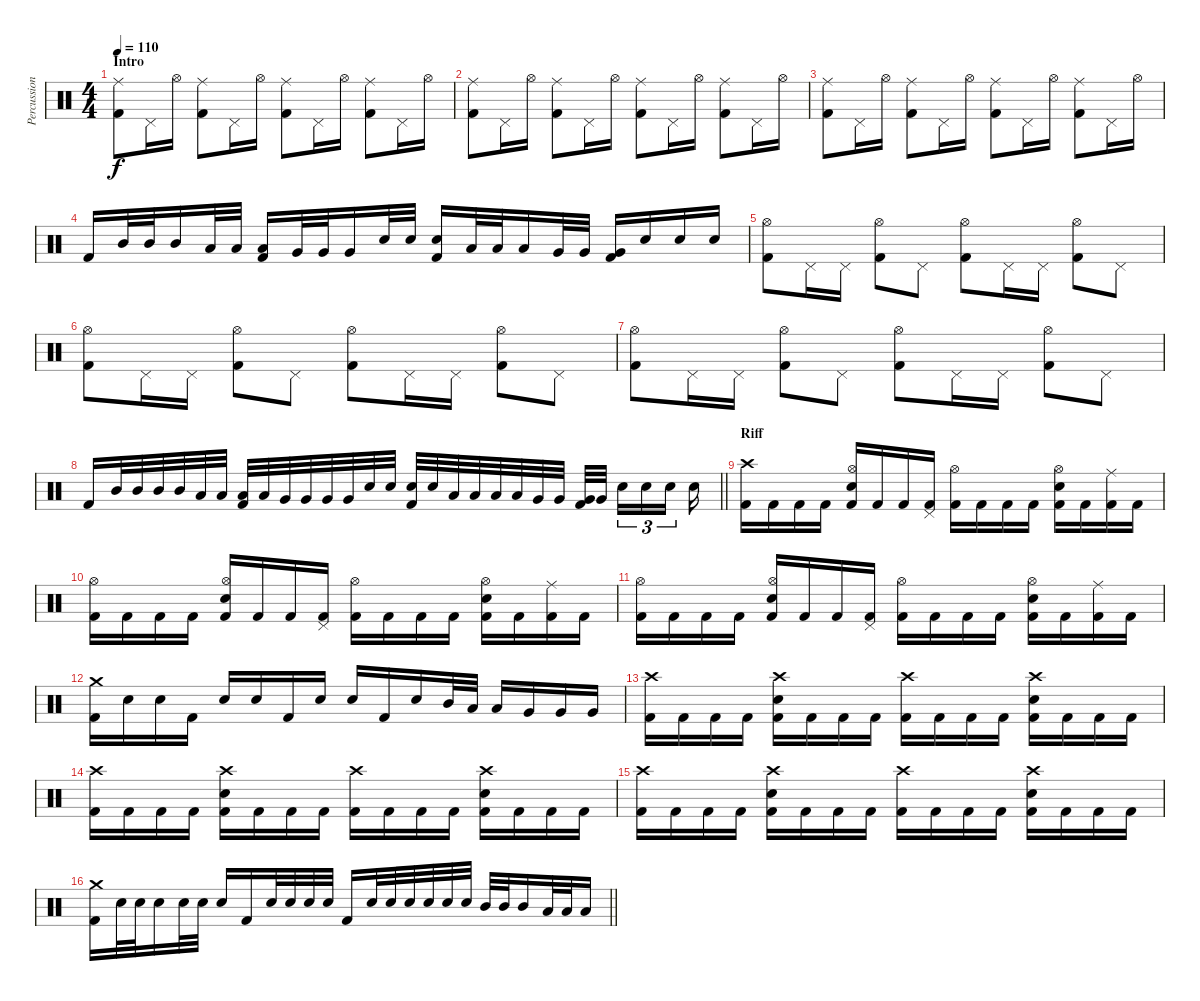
\track ("Percussion" "Percussion") {instrument percussion}
\staff {score}
\articulation defaults
\ts (4 4)
\section ("" "Intro")
\tempo 110
\clef neutral
\ks c
("Ride (middle)" "Kick (hit) 2").8{dy f} "Pedal Hi-Hat (hit)".16 "Hi-Hat (open)".16 ("Ride (middle)" "Kick (hit) 2").8 "Pedal Hi-Hat (hit)".16 "Hi-Hat (open)".16 ("Ride (middle)" "Kick (hit) 2").8 "Pedal Hi-Hat (hit)".16 "Hi-Hat (open)".16 ("Ride (middle)" "Kick (hit) 2").8 "Pedal Hi-Hat (hit)".16 "Hi-Hat (open)".16 |
("Ride (middle)" "Kick (hit) 2").8 "Pedal Hi-Hat (hit)".16 "Hi-Hat (open)".16 ("Ride (middle)" "Kick (hit) 2").8 "Pedal Hi-Hat (hit)".16 "Hi-Hat (open)".16 ("Ride (middle)" "Kick (hit) 2").8 "Pedal Hi-Hat (hit)".16 "Hi-Hat (open)".16 ("Ride (middle)" "Kick (hit) 2").8 "Pedal Hi-Hat (hit)".16 "Hi-Hat (open)".16 |
("Ride (middle)" "Kick (hit) 2").8 "Pedal Hi-Hat (hit)".16 "Hi-Hat (open)".16 ("Ride (middle)" "Kick (hit) 2").8 "Pedal Hi-Hat (hit)".16 "Hi-Hat (open)".16 ("Ride (middle)" "Kick (hit) 2").8 "Pedal Hi-Hat (hit)".16 "Hi-Hat (open)".16 ("Ride (middle)" "Kick (hit) 2").8 "Pedal Hi-Hat (hit)".16 "Hi-Hat (open)".16 |
"Kick (hit) 2".16 "Mid Tom (hit)".32 "Mid Tom (hit)".32 "Mid Tom (hit)".16 "Low Tom (hit)".32 "Low Tom (hit)".32 ("Low Tom (hit)" "Kick (hit) 2").16 "Very Low Tom (hit)".32 "Very Low Tom (hit)".32 "Very Low Tom (hit)".16 "Snare (hit) 2".32 "Snare (hit) 2".32 ("Snare (hit) 2" "Kick (hit) 2").16 "Low Tom (hit)".32 "Low Tom (hit)".32 "Low Tom (hit)".16 "Very Low Tom (hit)".32 "Very Low Tom (hit)".32 ("Very Low Tom (hit)" "Kick (hit) 2").16 "Snare (hit) 2".16 "Snare (hit) 2".16 "Snare (hit) 2".16 |
("Hi-Hat (open)" "Kick (hit) 2").8 "Pedal Hi-Hat (hit)".16 "Pedal Hi-Hat (hit)".16 ("Hi-Hat (open)" "Kick (hit) 2").8 "Pedal Hi-Hat (hit)".8 ("Hi-Hat (open)" "Kick (hit) 2").8 "Pedal Hi-Hat (hit)".16 "Pedal Hi-Hat (hit)".16 ("Hi-Hat (open)" "Kick (hit) 2").8 "Pedal Hi-Hat (hit)".8 |
("Hi-Hat (open)" "Kick (hit) 2").8 "Pedal Hi-Hat (hit)".16 "Pedal Hi-Hat (hit)".16 ("Hi-Hat (open)" "Kick (hit) 2").8 "Pedal Hi-Hat (hit)".8 ("Hi-Hat (open)" "Kick (hit) 2").8 "Pedal Hi-Hat (hit)".16 "Pedal Hi-Hat (hit)".16 ("Hi-Hat (open)" "Kick (hit) 2").8 "Pedal Hi-Hat (hit)".8 |
("Hi-Hat (open)" "Kick (hit) 2").8 "Pedal Hi-Hat (hit)".16 "Pedal Hi-Hat (hit)".16 ("Hi-Hat (open)" "Kick (hit) 2").8 "Pedal Hi-Hat (hit)".8 ("Hi-Hat (open)" "Kick (hit) 2").8 "Pedal Hi-Hat (hit)".16 "Pedal Hi-Hat (hit)".16 ("Hi-Hat (open)" "Kick (hit) 2").8 "Pedal Hi-Hat (hit)".8 |
\barLineRight lightlight "Kick (hit) 2".16 "Mid Tom (hit)".32 "Mid Tom (hit)".32 "Mid Tom (hit)".32 "Mid Tom (hit)".32 "Low Tom (hit)".32 "Low Tom (hit)".32
("Low Tom (hit)" "Kick (hit) 2").32 "Low Tom (hit)".32 "Very Low Tom (hit)".32 "Very Low Tom (hit)".32 "Very Low Tom (hit)".32 "Very Low Tom (hit)".32 "Snare (hit) 2".32 "Snare (hit) 2".32 ("Snare (hit) 2" "Kick (hit) 2").32 "Snare (hit) 2".32 "Low Tom (hit)".32 "Low Tom (hit)".32 "Low Tom (hit)".32 "Low Tom (hit)".32 "Very Low Tom (hit)".32 "Very Low Tom (hit)".32 ("Very Low Tom (hit)" "Kick (hit) 2").32 "Very Low Tom (hit)".32 "Snare (hit) 2".16{tu (3 2)} "Snare (hit) 2".16{tu (3 2)} "Snare (hit) 2".16{tu (3 2)} "Snare (hit) 2".16 |
\section ("" "Riff")
("Kick (hit) 2" "Crash high (hit)").16 "Kick (hit) 2".16 "Kick (hit) 2".16 "Kick (hit) 2".16 ("Hi-Hat (open)" "Snare (hit) 2" "Kick (hit) 2").16 "Kick (hit) 2".16 "Kick (hit) 2".16 ("Pedal Hi-Hat (hit)" "Kick (hit) 2").16 ("Hi-Hat (open)" "Kick (hit) 2").16 "Kick (hit) 2".16 "Kick (hit) 2".16 "Kick (hit) 2".16 ("Hi-Hat (open)" "Snare (hit) 2" "Kick (hit) 2").16 "Kick (hit) 2".16 ("Ride (middle)" "Kick (hit) 2").16 "Kick (hit) 2".16 |
("Hi-Hat (open)" "Kick (hit) 2").16 "Kick (hit) 2".16 "Kick (hit) 2".16 "Kick (hit) 2".16 ("Hi-Hat (open)" "Snare (hit) 2" "Kick (hit) 2").16 "Kick (hit) 2".16 "Kick (hit) 2".16 ("Pedal Hi-Hat (hit)" "Kick (hit) 2").16 ("Hi-Hat (open)" "Kick (hit) 2").16 "Kick (hit) 2".16 "Kick (hit) 2".16 "Kick (hit) 2".16 ("Hi-Hat (open)" "Snare (hit) 2" "Kick (hit) 2").16 "Kick (hit) 2".16 ("Ride (middle)" "Kick (hit) 2").16 "Kick (hit) 2".16 |
("Hi-Hat (open)" "Kick (hit) 2").16 "Kick (hit) 2".16 "Kick (hit) 2".16 "Kick (hit) 2".16 ("Hi-Hat (open)" "Snare (hit) 2" "Kick (hit) 2").16 "Kick (hit) 2".16 "Kick (hit) 2".16 ("Pedal Hi-Hat (hit)" "Kick (hit) 2").16 ("Hi-Hat (open)" "Kick (hit) 2").16 "Kick (hit) 2".16 "Kick (hit) 2".16 "Kick (hit) 2".16 ("Hi-Hat (open)" "Snare (hit) 2" "Kick (hit) 2").16 "Kick (hit) 2".16 ("Ride (middle)" "Kick (hit) 2").16 "Kick (hit) 2".16 |
("Kick (hit) 2" "Crash medium (hit)").16 "Snare (hit) 2".16 "Snare (hit) 2".16 "Kick (hit) 2".16 "Snare (hit) 2".16 "Snare (hit) 2".16 "Kick (hit) 2".16 "Snare (hit) 2".16 "Snare (hit) 2".16 "Kick (hit) 2".16 "Snare (hit) 2".16 "Mid Tom (hit)".32 "Low Tom (hit)".32 "Low Tom (hit)".16 "Very Low Tom (hit)".16 "Very Low Tom (hit)".16 "Very Low Tom (hit)".16 |
("Kick (hit) 2" "Crash high (hit)").16 "Kick (hit) 2".16 "Kick (hit) 2".16 "Kick (hit) 2".16 ("Snare (hit) 2" "Kick (hit) 2" "Crash high (hit)").16 "Kick (hit) 2".16 "Kick (hit) 2".16 "Kick (hit) 2".16 ("Kick (hit) 2" "Crash high (hit)").16 "Kick (hit) 2".16 "Kick (hit) 2".16 "Kick (hit) 2".16 ("Snare (hit) 2" "Kick (hit) 2" "Crash high (hit)").16 "Kick (hit) 2".16 "Kick (hit) 2".16 "Kick (hit) 2".16 |
("Kick (hit) 2" "Crash high (hit)").16 "Kick (hit) 2".16 "Kick (hit) 2".16 "Kick (hit) 2".16 ("Snare (hit) 2" "Kick (hit) 2" "Crash high (hit)").16 "Kick (hit) 2".16 "Kick (hit) 2".16 "Kick (hit) 2".16 ("Kick (hit) 2" "Crash high (hit)").16 "Kick (hit) 2".16 "Kick (hit) 2".16 "Kick (hit) 2".16 ("Snare (hit) 2" "Kick (hit) 2" "Crash high (hit)").16 "Kick (hit) 2".16 "Kick (hit) 2".16 "Kick (hit) 2".16 |
("Kick (hit) 2" "Crash high (hit)").16 "Kick (hit) 2".16 "Kick (hit) 2".16 "Kick (hit) 2".16 ("Snare (hit) 2" "Kick (hit) 2" "Crash high (hit)").16 "Kick (hit) 2".16 "Kick (hit) 2".16 "Kick (hit) 2".16 ("Kick (hit) 2" "Crash high (hit)").16 "Kick (hit) 2".16 "Kick (hit) 2".16 "Kick (hit) 2".16 ("Snare (hit) 2" "Kick (hit) 2" "Crash high (hit)").16 "Kick (hit) 2".16 "Kick (hit) 2".16 "Kick (hit) 2".16 |
\barLineRight lightlight
("Kick (hit) 2" "Crash medium (hit)").16 "Snare (hit) 2".32 "Snare (hit) 2".32 "Snare (hit) 2".16 "Snare (hit) 2".32 "Snare (hit) 2".32 "Snare (hit) 2".16 "Kick (hit) 2".16 "Snare (hit) 2".32 "Snare (hit) 2".32 "Snare (hit) 2".32 "Snare (hit) 2".32 "Kick (hit) 2".16 "Snare (hit) 2".32 "Snare (hit) 2".32 "Snare (hit) 2".32 "Snare (hit) 2".32 "Snare (hit) 2".32 "Snare (hit) 2".32 "Mid Tom (hit)".32 "Mid Tom (hit)".32 "Mid Tom (hit)".16 "Low Tom (hit)".32 "Low Tom (hit)".32 "Low Tom (hit)".16
